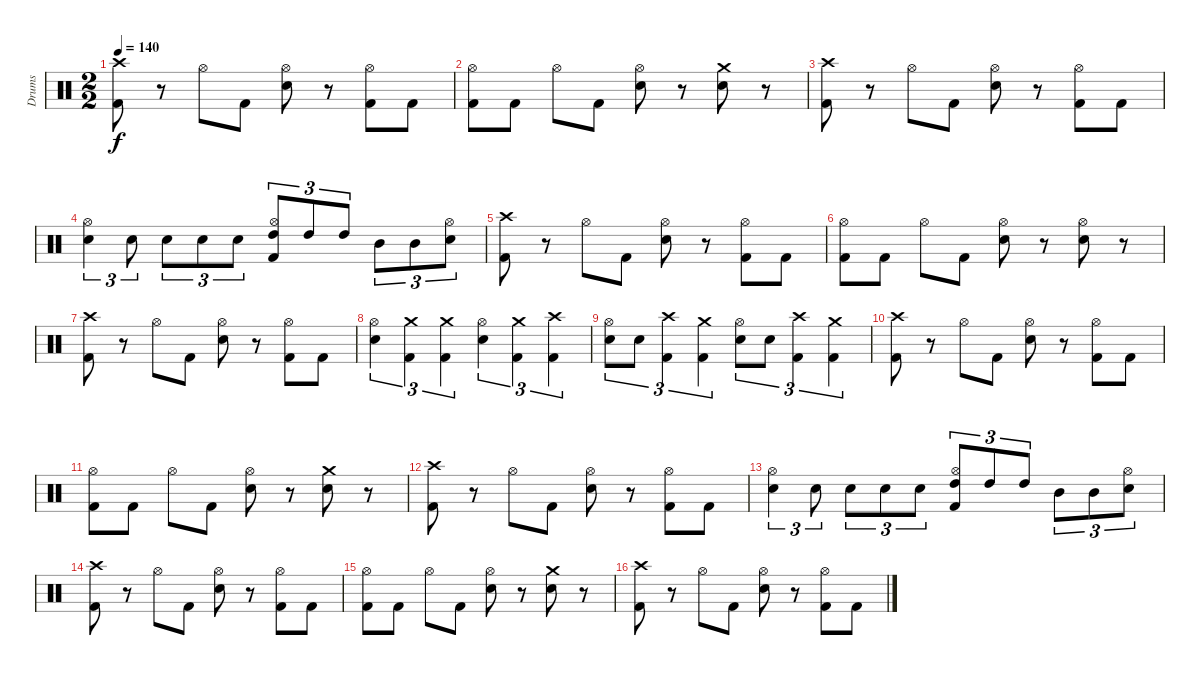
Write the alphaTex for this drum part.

\track ("Drums" "Drums") {instrument percussion}
\staff {score}
\articulation defaults
\ts (2 2)
\tempo 140
\clef neutral
\ks c
("Crash high (hit)" "Kick (hit) 2").8{dy f} r.8 "Hi-Hat (open)".8 "Kick (hit) 2".8 ("Hi-Hat (open)" "Snare (hit) 2").8 r.8 ("Hi-Hat (open)" "Kick (hit) 2").8 "Kick (hit) 2".8 |
("Hi-Hat (open)" "Kick (hit) 2").8 "Kick (hit) 2".8 "Hi-Hat (open)".8 "Kick (hit) 2".8 ("Hi-Hat (open)" "Snare (hit) 2").8 r.8 ("Crash medium (hit)" "Snare (hit) 2").8 r.8 |
("Crash high (hit)" "Kick (hit) 2").8 r.8 "Hi-Hat (open)".8 "Kick (hit) 2".8 ("Hi-Hat (open)" "Snare (hit) 2").8 r.8 ("Hi-Hat (open)" "Kick (hit) 2").8 "Kick (hit) 2".8 |
("Hi-Hat (open)" "Snare (hit) 2").4{tu (3 2)} "Snare (hit) 2".8{tu (3 2)} "Snare (hit) 2".8{tu (3 2)} "Snare (hit) 2".8{tu (3 2)} "Snare (hit) 2".8{tu (3 2)} ("Hi-Hat (open)" "High Tom (hit)" "Kick (hit) 2").8{tu (3 2)} "High Tom (hit)".8{tu (3 2)} "High Tom (hit)".8{tu (3 2)} "Mid Tom (hit)".8{tu (3 2)} "Mid Tom (hit)".8{tu (3 2)} ("Hi-Hat (open)" "Snare (hit) 2").8{tu (3 2)} |
("Crash high (hit)" "Kick (hit) 2").8 r.8 "Hi-Hat (open)".8 "Kick (hit) 2".8 ("Hi-Hat (open)" "Snare (hit) 2").8 r.8 ("Hi-Hat (open)" "Kick (hit) 2").8 "Kick (hit) 2".8 |
("Hi-Hat (open)" "Kick (hit) 2").8 "Kick (hit) 2".8 "Hi-Hat (open)".8 "Kick (hit) 2".8 ("Hi-Hat (open)" "Snare (hit) 2").8 r.8 ("Hi-Hat (open)" "Snare (hit) 2").8 r.8 |
("Crash high (hit)" "Kick (hit) 2").8 r.8 "Hi-Hat (open)".8 "Kick (hit) 2".8 ("Hi-Hat (open)" "Snare (hit) 2").8 r.8 ("Hi-Hat (open)" "Kick (hit) 2").8 "Kick (hit) 2".8 |
("Hi-Hat (open)" "Snare (hit) 2").4{tu (3 2)} ("Crash medium (hit)" "Kick (hit) 2").4{tu (3 2)} ("Crash medium (hit)" "Kick (hit) 2").4{tu (3 2)} ("Hi-Hat (open)" "Snare (hit) 2").4{tu (3 2)} ("Crash medium (hit)" "Kick (hit) 2").4{tu (3 2)} ("Crash high (hit)" "Kick (hit) 2").4{tu (3 2)} |
("Hi-Hat (open)" "Snare (hit) 2").8{tu (3 2)} "Snare (hit) 2".8{tu (3 2)} ("Crash high (hit)" "Kick (hit) 2").4{tu (3 2)} ("Crash medium (hit)" "Kick (hit) 2").4{tu (3 2)} ("Hi-Hat (open)" "Snare (hit) 2").8{tu (3 2)} "Snare (hit) 2".8{tu (3 2)} ("Crash high (hit)" "Kick (hit) 2").4{tu (3 2)} ("Crash medium (hit)" "Kick (hit) 2").4{tu (3 2)} |
("Crash high (hit)" "Kick (hit) 2").8 r.8 "Hi-Hat (open)".8 "Kick (hit) 2".8 ("Hi-Hat (open)" "Snare (hit) 2").8 r.8 ("Hi-Hat (open)" "Kick (hit) 2").8 "Kick (hit) 2".8 |
("Hi-Hat (open)" "Kick (hit) 2").8 "Kick (hit) 2".8 "Hi-Hat (open)".8 "Kick (hit) 2".8 ("Hi-Hat (open)" "Snare (hit) 2").8 r.8 ("Crash medium (hit)" "Snare (hit) 2").8 r.8 |
("Crash high (hit)" "Kick (hit) 2").8 r.8 "Hi-Hat (open)".8 "Kick (hit) 2".8 ("Hi-Hat (open)" "Snare (hit) 2").8 r.8 ("Hi-Hat (open)" "Kick (hit) 2").8 "Kick (hit) 2".8 |
("Hi-Hat (open)" "Snare (hit) 2").4{tu (3 2)} "Snare (hit) 2".8{tu (3 2)} "Snare (hit) 2".8{tu (3 2)} "Snare (hit) 2".8{tu (3 2)} "Snare (hit) 2".8{tu (3 2)} ("Hi-Hat (open)" "High Tom (hit)" "Kick (hit) 2").8{tu (3 2)} "High Tom (hit)".8{tu (3 2)} "High Tom (hit)".8{tu (3 2)} "Mid Tom (hit)".8{tu (3 2)} "Mid Tom (hit)".8{tu (3 2)} ("Hi-Hat (open)" "Snare (hit) 2").8{tu (3 2)} |
("Crash high (hit)" "Kick (hit) 2").8 r.8 "Hi-Hat (open)".8 "Kick (hit) 2".8 ("Hi-Hat (open)" "Snare (hit) 2").8 r.8 ("Hi-Hat (open)" "Kick (hit) 2").8 "Kick (hit) 2".8 |
("Hi-Hat (open)" "Kick (hit) 2").8 "Kick (hit) 2".8 "Hi-Hat (open)".8 "Kick (hit) 2".8 ("Hi-Hat (open)" "Snare (hit) 2").8 r.8 ("Crash medium (hit)" "Snare (hit) 2").8 r.8 |
("Crash high (hit)" "Kick (hit) 2").8 r.8 "Hi-Hat (open)".8 "Kick (hit) 2".8 ("Hi-Hat (open)" "Snare (hit) 2").8 r.8 ("Hi-Hat (open)" "Kick (hit) 2").8 "Kick (hit) 2".8
